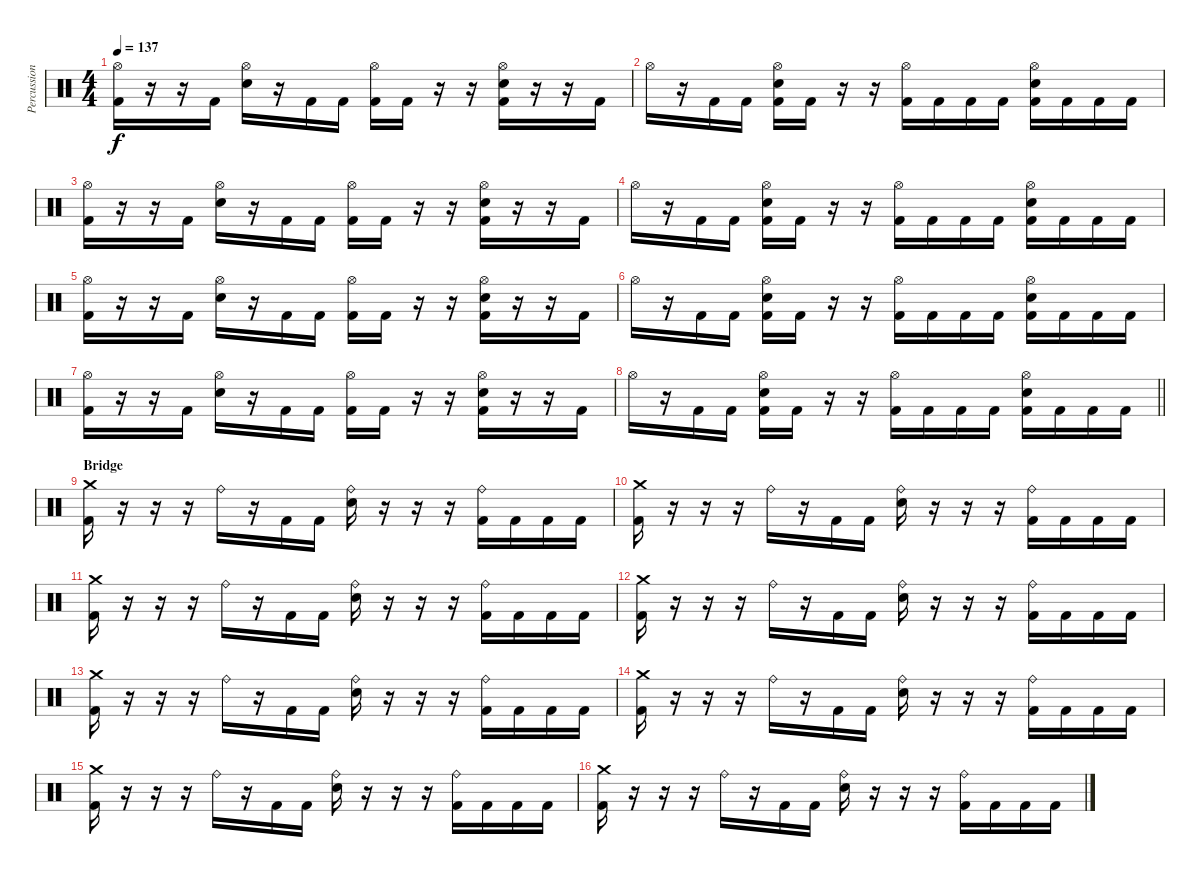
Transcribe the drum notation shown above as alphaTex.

\track ("Percussion" "Percussion") {instrument percussion}
\staff {score}
\articulation defaults
\ts (4 4)
\tempo 137
\clef neutral
\ks c
("Hi-Hat (open)" "Kick (hit) 2").16{dy f} r.16 r.16 "Kick (hit) 2".16 ("Hi-Hat (open)" "Snare (hit) 2").16 r.16 "Kick (hit) 2".16 "Kick (hit) 2".16 ("Hi-Hat (open)" "Kick (hit) 2").16 "Kick (hit) 2".16 r.16 r.16 ("Hi-Hat (open)" "Snare (hit) 2" "Kick (hit) 2").16 r.16 r.16 "Kick (hit) 2".16 |
"Hi-Hat (open)".16 r.16 "Kick (hit) 2".16 "Kick (hit) 2".16 ("Hi-Hat (open)" "Snare (hit) 2" "Kick (hit) 2").16 "Kick (hit) 2".16 r.16 r.16 ("Hi-Hat (open)" "Kick (hit) 2").16 "Kick (hit) 2".16 "Kick (hit) 2".16 "Kick (hit) 2".16 ("Hi-Hat (open)" "Snare (hit) 2" "Kick (hit) 2").16 "Kick (hit) 2".16 "Kick (hit) 2".16 "Kick (hit) 2".16 |
("Hi-Hat (open)" "Kick (hit) 2").16 r.16 r.16 "Kick (hit) 2".16 ("Hi-Hat (open)" "Snare (hit) 2").16 r.16 "Kick (hit) 2".16 "Kick (hit) 2".16 ("Hi-Hat (open)" "Kick (hit) 2").16 "Kick (hit) 2".16 r.16 r.16 ("Hi-Hat (open)" "Snare (hit) 2" "Kick (hit) 2").16 r.16 r.16 "Kick (hit) 2".16 |
"Hi-Hat (open)".16 r.16 "Kick (hit) 2".16 "Kick (hit) 2".16 ("Hi-Hat (open)" "Snare (hit) 2" "Kick (hit) 2").16 "Kick (hit) 2".16 r.16 r.16 ("Hi-Hat (open)" "Kick (hit) 2").16 "Kick (hit) 2".16 "Kick (hit) 2".16 "Kick (hit) 2".16 ("Hi-Hat (open)" "Snare (hit) 2" "Kick (hit) 2").16 "Kick (hit) 2".16 "Kick (hit) 2".16 "Kick (hit) 2".16 |
("Hi-Hat (open)" "Kick (hit) 2").16 r.16 r.16 "Kick (hit) 2".16 ("Hi-Hat (open)" "Snare (hit) 2").16 r.16 "Kick (hit) 2".16 "Kick (hit) 2".16 ("Hi-Hat (open)" "Kick (hit) 2").16 "Kick (hit) 2".16 r.16 r.16 ("Hi-Hat (open)" "Snare (hit) 2" "Kick (hit) 2").16 r.16 r.16 "Kick (hit) 2".16 |
"Hi-Hat (open)".16 r.16 "Kick (hit) 2".16 "Kick (hit) 2".16 ("Hi-Hat (open)" "Snare (hit) 2" "Kick (hit) 2").16 "Kick (hit) 2".16 r.16 r.16 ("Hi-Hat (open)" "Kick (hit) 2").16 "Kick (hit) 2".16 "Kick (hit) 2".16 "Kick (hit) 2".16 ("Hi-Hat (open)" "Snare (hit) 2" "Kick (hit) 2").16 "Kick (hit) 2".16 "Kick (hit) 2".16 "Kick (hit) 2".16 |
("Hi-Hat (open)" "Kick (hit) 2").16 r.16 r.16 "Kick (hit) 2".16 ("Hi-Hat (open)" "Snare (hit) 2").16 r.16 "Kick (hit) 2".16 "Kick (hit) 2".16 ("Hi-Hat (open)" "Kick (hit) 2").16 "Kick (hit) 2".16 r.16 r.16 ("Hi-Hat (open)" "Snare (hit) 2" "Kick (hit) 2").16 r.16 r.16 "Kick (hit) 2".16 |
\barLineRight lightlight "Hi-Hat (open)".16
r.16 "Kick (hit) 2".16 "Kick (hit) 2".16 ("Hi-Hat (open)" "Snare (hit) 2" "Kick (hit) 2").16 "Kick (hit) 2".16 r.16 r.16 ("Hi-Hat (open)" "Kick (hit) 2").16 "Kick (hit) 2".16 "Kick (hit) 2".16 "Kick (hit) 2".16 ("Hi-Hat (open)" "Snare (hit) 2" "Kick (hit) 2").16 "Kick (hit) 2".16 "Kick (hit) 2".16 "Kick (hit) 2".16 |
\section ("" "Bridge")
("Crash medium (hit)" "Kick (hit) 2").16 r.16 r.16 r.16 "Ride (bell)".16 r.16 "Kick (hit) 2".16 "Kick (hit) 2".16 ("Ride (bell)" "Snare (hit) 2").16 r.16 r.16 r.16 ("Ride (bell)" "Kick (hit) 2").16 "Kick (hit) 2".16 "Kick (hit) 2".16 "Kick (hit) 2".16 |
("Crash medium (hit)" "Kick (hit) 2").16 r.16 r.16 r.16 "Ride (bell)".16 r.16 "Kick (hit) 2".16 "Kick (hit) 2".16 ("Ride (bell)" "Snare (hit) 2").16 r.16 r.16 r.16 ("Ride (bell)" "Kick (hit) 2").16 "Kick (hit) 2".16 "Kick (hit) 2".16 "Kick (hit) 2".16 |
("Crash medium (hit)" "Kick (hit) 2").16 r.16 r.16 r.16 "Ride (bell)".16 r.16 "Kick (hit) 2".16 "Kick (hit) 2".16 ("Ride (bell)" "Snare (hit) 2").16 r.16 r.16 r.16 ("Ride (bell)" "Kick (hit) 2").16 "Kick (hit) 2".16 "Kick (hit) 2".16 "Kick (hit) 2".16 |
("Crash medium (hit)" "Kick (hit) 2").16 r.16 r.16 r.16 "Ride (bell)".16 r.16 "Kick (hit) 2".16 "Kick (hit) 2".16 ("Ride (bell)" "Snare (hit) 2").16 r.16 r.16 r.16 ("Ride (bell)" "Kick (hit) 2").16 "Kick (hit) 2".16 "Kick (hit) 2".16 "Kick (hit) 2".16 |
("Crash medium (hit)" "Kick (hit) 2").16 r.16 r.16 r.16 "Ride (bell)".16 r.16 "Kick (hit) 2".16 "Kick (hit) 2".16 ("Ride (bell)" "Snare (hit) 2").16 r.16 r.16 r.16 ("Ride (bell)" "Kick (hit) 2").16 "Kick (hit) 2".16 "Kick (hit) 2".16 "Kick (hit) 2".16 |
("Crash medium (hit)" "Kick (hit) 2").16 r.16 r.16 r.16 "Ride (bell)".16 r.16 "Kick (hit) 2".16 "Kick (hit) 2".16 ("Ride (bell)" "Snare (hit) 2").16 r.16 r.16 r.16 ("Ride (bell)" "Kick (hit) 2").16 "Kick (hit) 2".16 "Kick (hit) 2".16 "Kick (hit) 2".16 |
("Crash medium (hit)" "Kick (hit) 2").16 r.16 r.16 r.16 "Ride (bell)".16 r.16 "Kick (hit) 2".16 "Kick (hit) 2".16 ("Ride (bell)" "Snare (hit) 2").16 r.16 r.16 r.16 ("Ride (bell)" "Kick (hit) 2").16 "Kick (hit) 2".16 "Kick (hit) 2".16 "Kick (hit) 2".16 |
("Crash medium (hit)" "Kick (hit) 2").16 r.16 r.16 r.16 "Ride (bell)".16 r.16 "Kick (hit) 2".16 "Kick (hit) 2".16 ("Ride (bell)" "Snare (hit) 2").16 r.16 r.16 r.16 ("Ride (bell)" "Kick (hit) 2").16 "Kick (hit) 2".16 "Kick (hit) 2".16 "Kick (hit) 2".16
